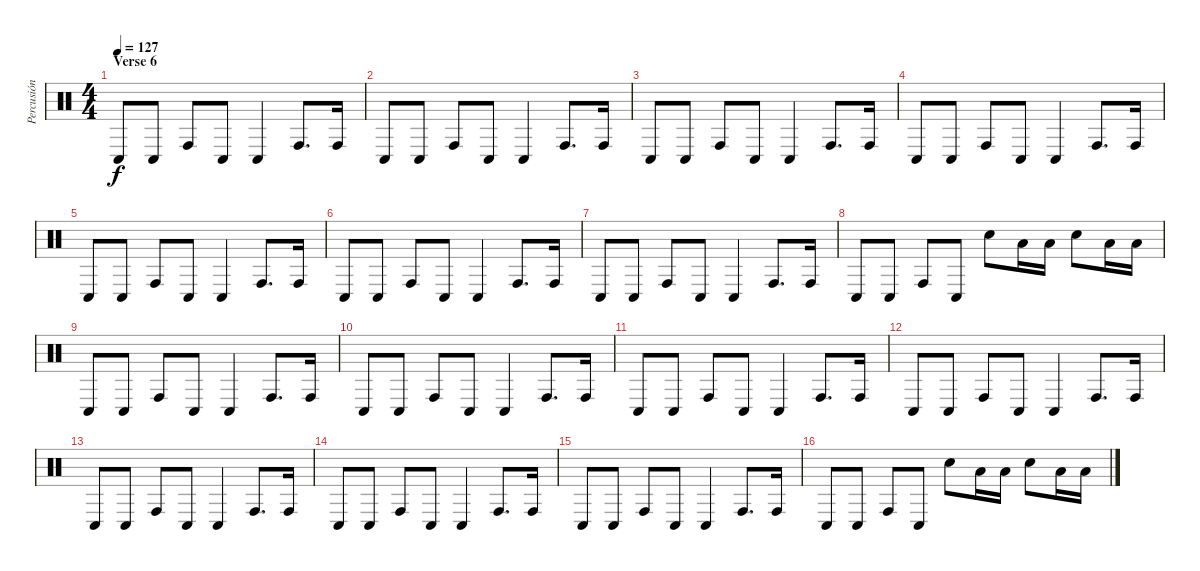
\track ("Percusión" "Percusión") {instrument percussion}
\staff {score}
\articulation defaults
\ts (4 4)
\section ("" "Verse 6")
\tempo 127
\clef neutral
\ks c "Conga low (hit)".8{dy f} "Conga low (hit)".8 "Conga high (hit)".8 "Conga low (hit)".8 "Conga low (hit)".4 "Conga high (hit)".8{d} "Conga high (hit)".16
|
"Conga low (hit)".8 "Conga low (hit)".8 "Conga high (hit)".8 "Conga low (hit)".8 "Conga low (hit)".4 "Conga high (hit)".8{d} "Conga high (hit)".16 |
"Conga low (hit)".8 "Conga low (hit)".8 "Conga high (hit)".8 "Conga low (hit)".8 "Conga low (hit)".4 "Conga high (hit)".8{d} "Conga high (hit)".16 |
"Conga low (hit)".8 "Conga low (hit)".8 "Conga high (hit)".8 "Conga low (hit)".8 "Conga low (hit)".4 "Conga high (hit)".8{d} "Conga high (hit)".16 |
"Conga low (hit)".8 "Conga low (hit)".8 "Conga high (hit)".8 "Conga low (hit)".8 "Conga low (hit)".4 "Conga high (hit)".8{d} "Conga high (hit)".16 |
"Conga low (hit)".8 "Conga low (hit)".8 "Conga high (hit)".8 "Conga low (hit)".8 "Conga low (hit)".4 "Conga high (hit)".8{d} "Conga high (hit)".16 |
"Conga low (hit)".8 "Conga low (hit)".8 "Conga high (hit)".8 "Conga low (hit)".8 "Conga low (hit)".4 "Conga high (hit)".8{d} "Conga high (hit)".16 |
"Conga low (hit)".8 "Conga low (hit)".8 "Conga high (hit)".8 "Conga low (hit)".8 "Snare (hit) 2".8 "Low Tom (hit)".16 "Low Tom (hit)".16 "Snare (hit) 2".8 "Low Tom (hit)".16 "Low Tom (hit)".16 |
"Conga low (hit)".8 "Conga low (hit)".8 "Conga high (hit)".8 "Conga low (hit)".8 "Conga low (hit)".4 "Conga high (hit)".8{d} "Conga high (hit)".16 |
"Conga low (hit)".8 "Conga low (hit)".8 "Conga high (hit)".8 "Conga low (hit)".8 "Conga low (hit)".4 "Conga high (hit)".8{d} "Conga high (hit)".16 |
"Conga low (hit)".8 "Conga low (hit)".8 "Conga high (hit)".8 "Conga low (hit)".8 "Conga low (hit)".4 "Conga high (hit)".8{d} "Conga high (hit)".16 |
"Conga low (hit)".8 "Conga low (hit)".8 "Conga high (hit)".8 "Conga low (hit)".8 "Conga low (hit)".4 "Conga high (hit)".8{d} "Conga high (hit)".16 |
"Conga low (hit)".8 "Conga low (hit)".8 "Conga high (hit)".8 "Conga low (hit)".8 "Conga low (hit)".4 "Conga high (hit)".8{d} "Conga high (hit)".16 |
"Conga low (hit)".8 "Conga low (hit)".8 "Conga high (hit)".8 "Conga low (hit)".8 "Conga low (hit)".4 "Conga high (hit)".8{d} "Conga high (hit)".16 |
"Conga low (hit)".8 "Conga low (hit)".8 "Conga high (hit)".8 "Conga low (hit)".8 "Conga low (hit)".4 "Conga high (hit)".8{d} "Conga high (hit)".16 |
"Conga low (hit)".8 "Conga low (hit)".8 "Conga high (hit)".8 "Conga low (hit)".8 "Snare (hit) 2".8 "Low Tom (hit)".16 "Low Tom (hit)".16 "Snare (hit) 2".8 "Low Tom (hit)".16 "Low Tom (hit)".16
